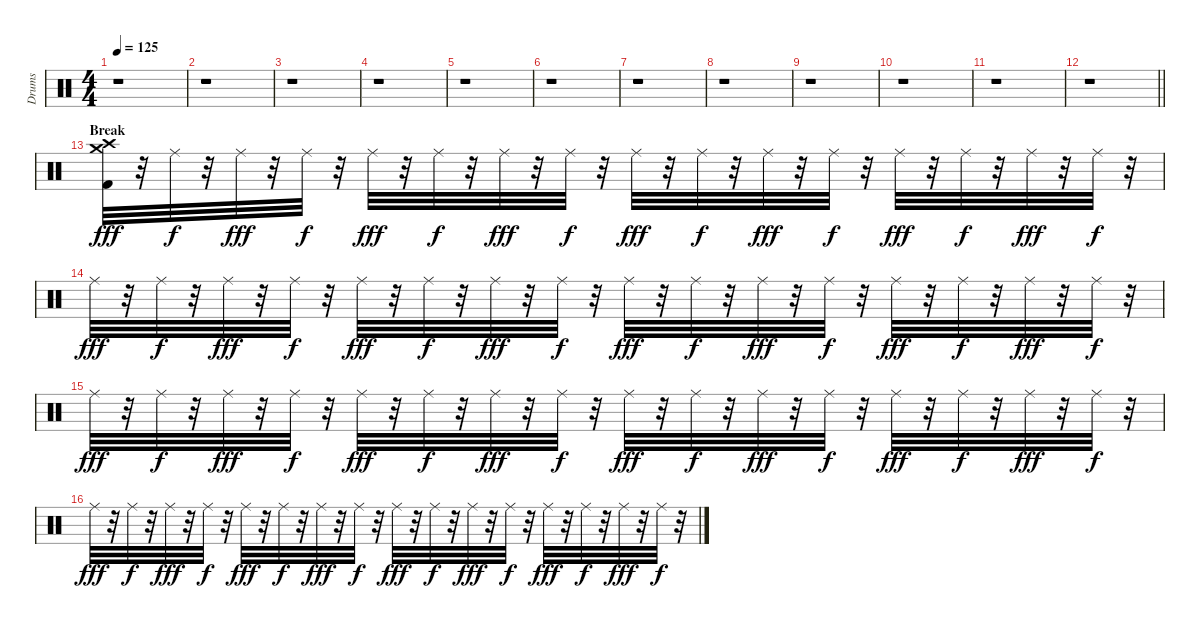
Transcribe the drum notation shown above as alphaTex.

\track ("Drums" "Drums") {instrument percussion}
\staff {score}
\articulation defaults
\ts (4 4)
\tempo 125
\clef neutral
\ks c
r.1{dy fff} |
r.1 |
r.1 |
r.1 |
r.1 |
r.1 |
r.1 |
r.1 |
r.1 |
r.1 |
r.1 |
\barLineRight lightlight
r.1 |
\section ("" "Break")
("Crash medium (hit)" "Crash high (hit)" "Kick (hit) 2").32 r.32 "Ride (middle)".32{dy f} r.32 "Ride (middle)".32{dy fff} r.32 "Ride (middle)".32{dy f} r.32 "Ride (middle)".32{dy fff} r.32 "Ride (middle)".32{dy f} r.32 "Ride (middle)".32{dy fff} r.32 "Ride (middle)".32{dy f} r.32 "Ride (middle)".32{dy fff} r.32 "Ride (middle)".32{dy f} r.32 "Ride (middle)".32{dy fff} r.32 "Ride (middle)".32{dy f} r.32 "Ride (middle)".32{dy fff} r.32 "Ride (middle)".32{dy f} r.32 "Ride (middle)".32{dy fff} r.32 "Ride (middle)".32{dy f} r.32 |
"Ride (middle)".32{dy fff} r.32 "Ride (middle)".32{dy f} r.32 "Ride (middle)".32{dy fff} r.32 "Ride (middle)".32{dy f} r.32 "Ride (middle)".32{dy fff} r.32 "Ride (middle)".32{dy f} r.32 "Ride (middle)".32{dy fff} r.32 "Ride (middle)".32{dy f} r.32 "Ride (middle)".32{dy fff} r.32 "Ride (middle)".32{dy f} r.32 "Ride (middle)".32{dy fff} r.32 "Ride (middle)".32{dy f} r.32 "Ride (middle)".32{dy fff} r.32 "Ride (middle)".32{dy f} r.32 "Ride (middle)".32{dy fff} r.32 "Ride (middle)".32{dy f} r.32 |
"Ride (middle)".32{dy fff} r.32 "Ride (middle)".32{dy f} r.32 "Ride (middle)".32{dy fff} r.32 "Ride (middle)".32{dy f} r.32 "Ride (middle)".32{dy fff} r.32 "Ride (middle)".32{dy f} r.32 "Ride (middle)".32{dy fff} r.32 "Ride (middle)".32{dy f} r.32 "Ride (middle)".32{dy fff} r.32 "Ride (middle)".32{dy f} r.32 "Ride (middle)".32{dy fff} r.32 "Ride (middle)".32{dy f} r.32 "Ride (middle)".32{dy fff} r.32 "Ride (middle)".32{dy f} r.32 "Ride (middle)".32{dy fff} r.32 "Ride (middle)".32{dy f} r.32 |
"Ride (middle)".32{dy fff} r.32 "Ride (middle)".32{dy f} r.32 "Ride (middle)".32{dy fff} r.32 "Ride (middle)".32{dy f} r.32 "Ride (middle)".32{dy fff} r.32 "Ride (middle)".32{dy f} r.32 "Ride (middle)".32{dy fff} r.32 "Ride (middle)".32{dy f} r.32 "Ride (middle)".32{dy fff} r.32 "Ride (middle)".32{dy f} r.32 "Ride (middle)".32{dy fff} r.32 "Ride (middle)".32{dy f} r.32 "Ride (middle)".32{dy fff} r.32 "Ride (middle)".32{dy f} r.32 "Ride (middle)".32{dy fff} r.32 "Ride (middle)".32{dy f} r.32
